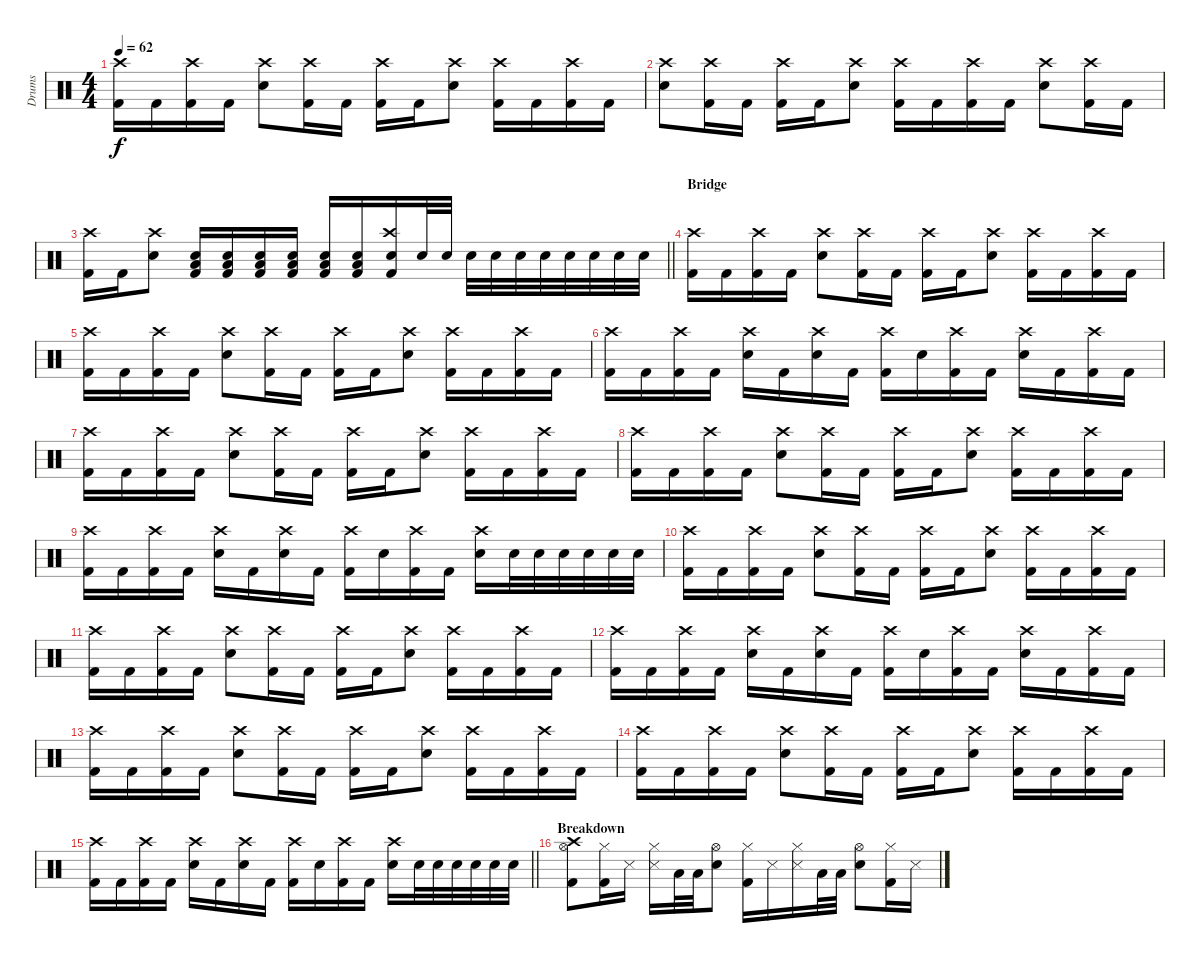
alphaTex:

\track ("Drums" "Drums") {instrument percussion}
\staff {score}
\articulation defaults
\ts (4 4)
\tempo 62
\clef neutral
\ks c
("Kick (hit) 2" "Crash high (hit)").16{dy f} "Kick (hit) 2".16 ("Kick (hit) 2" "Crash high (hit)").16 "Kick (hit) 2".16 ("Electric Snare (hit)" "Crash high (hit)").8 ("Kick (hit) 2" "Crash high (hit)").16 "Kick (hit) 2".16 ("Kick (hit) 2" "Crash high (hit)").16 "Kick (hit) 2".16 ("Electric Snare (hit)" "Crash high (hit)").8 ("Kick (hit) 2" "Crash high (hit)").16 "Kick (hit) 2".16 ("Kick (hit) 2" "Crash high (hit)").16 "Kick (hit) 2".16 |
("Electric Snare (hit)" "Crash high (hit)").8 ("Kick (hit) 2" "Crash high (hit)").16 "Kick (hit) 2".16 ("Kick (hit) 2" "Crash high (hit)").16 "Kick (hit) 2".16 ("Electric Snare (hit)" "Crash high (hit)").8 ("Kick (hit) 2" "Crash high (hit)").16 "Kick (hit) 2".16 ("Kick (hit) 2" "Crash high (hit)").16 "Kick (hit) 2".16 ("Electric Snare (hit)" "Crash high (hit)").8 ("Kick (hit) 2" "Crash high (hit)").16 "Kick (hit) 2".16 |
\barLineRight lightlight
("Kick (hit) 2" "Crash high (hit)").16 "Kick (hit) 2".16 ("Electric Snare (hit)" "Crash high (hit)").8 ("Electric Snare (hit)" "Kick (hit) 2" "Low Tom (hit)").16 ("Electric Snare (hit)" "Kick (hit) 2" "Low Tom (hit)").16 ("Electric Snare (hit)" "Kick (hit) 2" "Low Tom (hit)").16 ("Electric Snare (hit)" "Kick (hit) 2" "Low Tom (hit)").16 ("Electric Snare (hit)" "Kick (hit) 2" "Low Tom (hit)").16 ("Electric Snare (hit)" "Kick (hit) 2" "Low Tom (hit)").16 ("Electric Snare (hit)" "Kick (hit) 2" "Crash high (hit)").16 "Electric Snare (hit)".32 "Electric Snare (hit)".32 "Electric Snare (hit)".32 "Electric Snare (hit)".32 "Electric Snare (hit)".32 "Electric Snare (hit)".32 "Electric Snare (hit)".32 "Electric Snare (hit)".32 "Electric Snare (hit)".32 "Electric Snare (hit)".32 |
\section ("" "Bridge")
("Kick (hit) 2" "Crash high (hit)").16 "Kick (hit) 2".16 ("Kick (hit) 2" "Crash high (hit)").16 "Kick (hit) 2".16 ("Electric Snare (hit)" "Crash high (hit)").8 ("Kick (hit) 2" "Crash high (hit)").16 "Kick (hit) 2".16 ("Kick (hit) 2" "Crash high (hit)").16 "Kick (hit) 2".16 ("Electric Snare (hit)" "Crash high (hit)").8 ("Kick (hit) 2" "Crash high (hit)").16 "Kick (hit) 2".16 ("Kick (hit) 2" "Crash high (hit)").16 "Kick (hit) 2".16 |
("Kick (hit) 2" "Crash high (hit)").16 "Kick (hit) 2".16 ("Kick (hit) 2" "Crash high (hit)").16 "Kick (hit) 2".16 ("Electric Snare (hit)" "Crash high (hit)").8 ("Kick (hit) 2" "Crash high (hit)").16 "Kick (hit) 2".16 ("Kick (hit) 2" "Crash high (hit)").16 "Kick (hit) 2".16 ("Electric Snare (hit)" "Crash high (hit)").8 ("Kick (hit) 2" "Crash high (hit)").16 "Kick (hit) 2".16 ("Kick (hit) 2" "Crash high (hit)").16 "Kick (hit) 2".16 |
("Kick (hit) 2" "Crash high (hit)").16 "Kick (hit) 2".16 ("Kick (hit) 2" "Crash high (hit)").16 "Kick (hit) 2".16 ("Electric Snare (hit)" "Crash high (hit)").16 "Kick (hit) 2".16 ("Electric Snare (hit)" "Crash high (hit)").16 "Kick (hit) 2".16 ("Kick (hit) 2" "Crash high (hit)").16 "Electric Snare (hit)".16 ("Kick (hit) 2" "Crash high (hit)").16 "Kick (hit) 2".16 ("Electric Snare (hit)" "Crash high (hit)").16 "Kick (hit) 2".16 ("Kick (hit) 2" "Crash high (hit)").16 "Kick (hit) 2".16 |
("Kick (hit) 2" "Crash high (hit)").16 "Kick (hit) 2".16 ("Kick (hit) 2" "Crash high (hit)").16 "Kick (hit) 2".16 ("Electric Snare (hit)" "Crash high (hit)").8 ("Kick (hit) 2" "Crash high (hit)").16 "Kick (hit) 2".16 ("Kick (hit) 2" "Crash high (hit)").16 "Kick (hit) 2".16 ("Electric Snare (hit)" "Crash high (hit)").8 ("Kick (hit) 2" "Crash high (hit)").16 "Kick (hit) 2".16 ("Kick (hit) 2" "Crash high (hit)").16 "Kick (hit) 2".16 |
("Kick (hit) 2" "Crash high (hit)").16 "Kick (hit) 2".16 ("Kick (hit) 2" "Crash high (hit)").16 "Kick (hit) 2".16 ("Electric Snare (hit)" "Crash high (hit)").8 ("Kick (hit) 2" "Crash high (hit)").16 "Kick (hit) 2".16 ("Kick (hit) 2" "Crash high (hit)").16 "Kick (hit) 2".16 ("Electric Snare (hit)" "Crash high (hit)").8 ("Kick (hit) 2" "Crash high (hit)").16 "Kick (hit) 2".16 ("Kick (hit) 2" "Crash high (hit)").16 "Kick (hit) 2".16 |
("Kick (hit) 2" "Crash high (hit)").16 "Kick (hit) 2".16 ("Kick (hit) 2" "Crash high (hit)").16 "Kick (hit) 2".16 ("Electric Snare (hit)" "Crash high (hit)").16 "Kick (hit) 2".16 ("Electric Snare (hit)" "Crash high (hit)").16 "Kick (hit) 2".16 ("Kick (hit) 2" "Crash high (hit)").16 "Electric Snare (hit)".16 ("Kick (hit) 2" "Crash high (hit)").16 "Kick (hit) 2".16 ("Electric Snare (hit)" "Crash high (hit)").16 "Electric Snare (hit)".32 "Electric Snare (hit)".32 "Electric Snare (hit)".32 "Electric Snare (hit)".32 "Electric Snare (hit)".32 "Electric Snare (hit)".32 |
("Kick (hit) 2" "Crash high (hit)").16 "Kick (hit) 2".16 ("Kick (hit) 2" "Crash high (hit)").16 "Kick (hit) 2".16 ("Electric Snare (hit)" "Crash high (hit)").8 ("Kick (hit) 2" "Crash high (hit)").16 "Kick (hit) 2".16 ("Kick (hit) 2" "Crash high (hit)").16 "Kick (hit) 2".16 ("Electric Snare (hit)" "Crash high (hit)").8 ("Kick (hit) 2" "Crash high (hit)").16 "Kick (hit) 2".16 ("Kick (hit) 2" "Crash high (hit)").16 "Kick (hit) 2".16 |
("Kick (hit) 2" "Crash high (hit)").16 "Kick (hit) 2".16 ("Kick (hit) 2" "Crash high (hit)").16 "Kick (hit) 2".16 ("Electric Snare (hit)" "Crash high (hit)").8 ("Kick (hit) 2" "Crash high (hit)").16 "Kick (hit) 2".16 ("Kick (hit) 2" "Crash high (hit)").16 "Kick (hit) 2".16 ("Electric Snare (hit)" "Crash high (hit)").8 ("Kick (hit) 2" "Crash high (hit)").16 "Kick (hit) 2".16 ("Kick (hit) 2" "Crash high (hit)").16 "Kick (hit) 2".16 |
("Kick (hit) 2" "Crash high (hit)").16 "Kick (hit) 2".16 ("Kick (hit) 2" "Crash high (hit)").16 "Kick (hit) 2".16 ("Electric Snare (hit)" "Crash high (hit)").16 "Kick (hit) 2".16 ("Electric Snare (hit)" "Crash high (hit)").16 "Kick (hit) 2".16 ("Kick (hit) 2" "Crash high (hit)").16 "Electric Snare (hit)".16 ("Kick (hit) 2" "Crash high (hit)").16 "Kick (hit) 2".16 ("Electric Snare (hit)" "Crash high (hit)").16 "Kick (hit) 2".16 ("Kick (hit) 2" "Crash high (hit)").16 "Kick (hit) 2".16 |
("Kick (hit) 2" "Crash high (hit)").16 "Kick (hit) 2".16 ("Kick (hit) 2" "Crash high (hit)").16 "Kick (hit) 2".16 ("Electric Snare (hit)" "Crash high (hit)").8 ("Kick (hit) 2" "Crash high (hit)").16 "Kick (hit) 2".16 ("Kick (hit) 2" "Crash high (hit)").16 "Kick (hit) 2".16 ("Electric Snare (hit)" "Crash high (hit)").8 ("Kick (hit) 2" "Crash high (hit)").16 "Kick (hit) 2".16 ("Kick (hit) 2" "Crash high (hit)").16 "Kick (hit) 2".16 |
("Kick (hit) 2" "Crash high (hit)").16 "Kick (hit) 2".16 ("Kick (hit) 2" "Crash high (hit)").16 "Kick (hit) 2".16 ("Electric Snare (hit)" "Crash high (hit)").8 ("Kick (hit) 2" "Crash high (hit)").16 "Kick (hit) 2".16 ("Kick (hit) 2" "Crash high (hit)").16 "Kick (hit) 2".16 ("Electric Snare (hit)" "Crash high (hit)").8 ("Kick (hit) 2" "Crash high (hit)").16 "Kick (hit) 2".16 ("Kick (hit) 2" "Crash high (hit)").16 "Kick (hit) 2".16 |
\barLineRight lightlight
("Kick (hit) 2" "Crash high (hit)").16 "Kick (hit) 2".16 ("Kick (hit) 2" "Crash high (hit)").16 "Kick (hit) 2".16 ("Electric Snare (hit)" "Crash high (hit)").16 "Kick (hit) 2".16 ("Electric Snare (hit)" "Crash high (hit)").16 "Kick (hit) 2".16 ("Kick (hit) 2" "Crash high (hit)").16 "Electric Snare (hit)".16 ("Kick (hit) 2" "Crash high (hit)").16 "Kick (hit) 2".16 ("Electric Snare (hit)" "Crash high (hit)").16 "Electric Snare (hit)".32 "Electric Snare (hit)".32 "Electric Snare (hit)".32 "Electric Snare (hit)".32 "Electric Snare (hit)".32 "Electric Snare (hit)".32 |
\section ("" "Breakdown")
("Hi-Hat (open)" "Kick (hit) 2" "Crash high (hit)").8 ("Hi-Hat (closed)" "Kick (hit) 2").16 "Snare (side stick) 3".16 ("Hi-Hat (closed)" "Snare (side stick) 3").16 "Low Tom (hit)".32 "Low Tom (hit)".32 ("Hi-Hat (open)" "Snare (hit) 2").8 ("Hi-Hat (closed)" "Kick (hit) 2").16 "Snare (side stick) 3".16 ("Hi-Hat (closed)" "Snare (side stick) 3").16 "Low Tom (hit)".32 "Low Tom (hit)".32 ("Hi-Hat (open)" "Snare (hit) 2").8 ("Hi-Hat (closed)" "Kick (hit) 2").16 "Snare (side stick) 3".16
